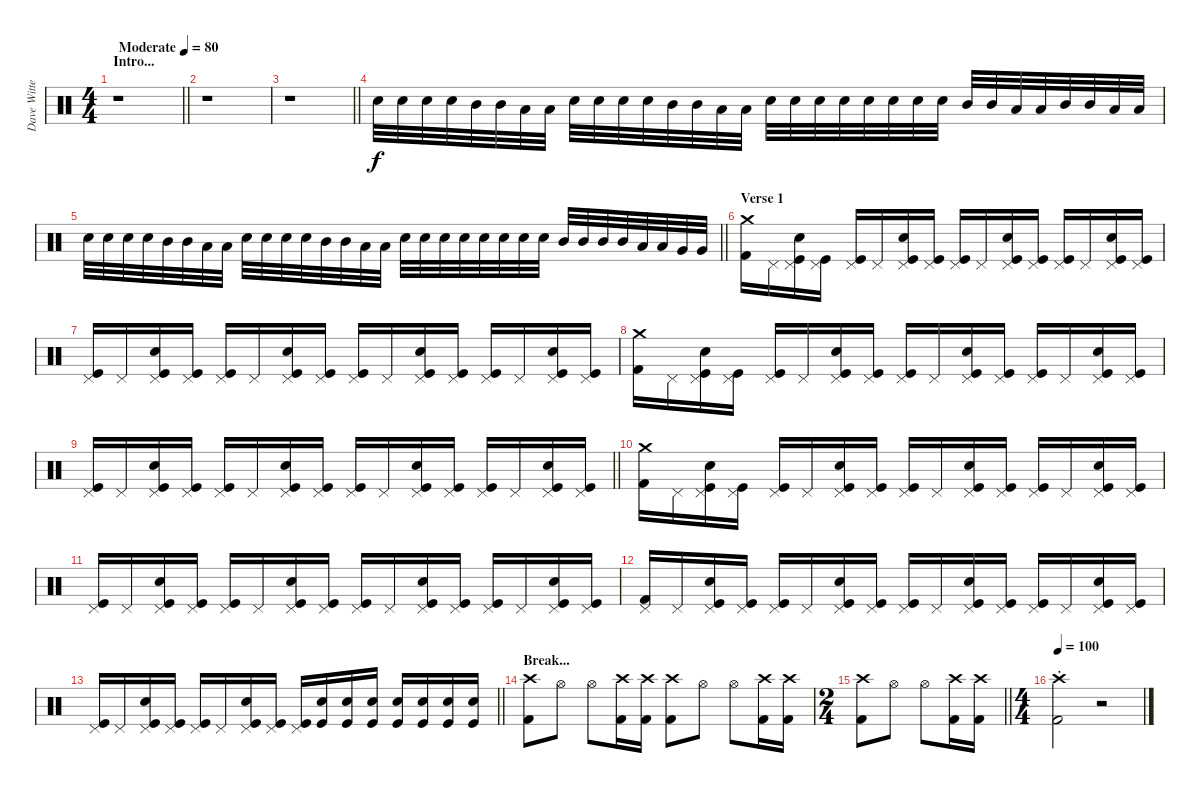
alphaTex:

\track ("Dave Witte " "Dave Witte") {instrument percussion}
\staff {score}
\articulation defaults
\ts (4 4)
\section ("" "Intro...")
\tempo (80 "Moderate")
\clef neutral
\barLineRight lightlight
\ks c
r.1{dy f} |
r.1 |
\barLineRight lightlight
r.1 |
"Electric Snare (hit)".32 "Electric Snare (hit)".32 "Electric Snare (hit)".32 "Electric Snare (hit)".32 "Mid Tom (hit)".32 "Mid Tom (hit)".32 "Low Tom (hit)".32 "Low Tom (hit)".32 "Electric Snare (hit)".32 "Electric Snare (hit)".32 "Electric Snare (hit)".32 "Electric Snare (hit)".32 "Mid Tom (hit)".32 "Mid Tom (hit)".32 "Low Tom (hit)".32 "Low Tom (hit)".32 "Electric Snare (hit)".32 "Electric Snare (hit)".32 "Electric Snare (hit)".32 "Electric Snare (hit)".32 "Electric Snare (hit)".32 "Electric Snare (hit)".32 "Electric Snare (hit)".32 "Electric Snare (hit)".32 "Mid Tom (hit)".32 "Mid Tom (hit)".32 "Low Tom (hit)".32 "Low Tom (hit)".32 "Mid Tom (hit)".32 "Mid Tom (hit)".32 "Low Tom (hit)".32 "Low Tom (hit)".32 |
\barLineRight lightlight "Electric Snare (hit)".32 "Electric Snare (hit)".32 "Electric Snare (hit)".32 "Electric Snare (hit)".32 "Mid Tom (hit)".32 "Mid Tom (hit)".32 "Low Tom (hit)".32 "Low Tom (hit)".32 "Electric Snare (hit)".32 "Electric Snare (hit)".32 "Electric Snare (hit)".32 "Electric Snare (hit)".32 "Mid Tom (hit)".32 "Mid Tom (hit)".32 "Low Tom (hit)".32 "Low Tom (hit)".32 "Electric Snare (hit)".32 "Electric Snare (hit)".32 "Electric Snare (hit)".32 "Electric Snare (hit)".32 "Electric Snare (hit)".32 "Electric Snare (hit)".32 "Electric Snare (hit)".32 "Electric Snare (hit)".32 "Mid Tom (hit)".32 "Mid Tom (hit)".32 "Mid Tom (hit)".32 "Mid Tom (hit)".32 "Low Tom (hit)".32 "Low Tom (hit)".32 "Very Low Tom (hit)".32 "Very Low Tom (hit)".32
|
\section ("" "Verse 1")
("Kick (hit) 2" "Crash medium (hit)").16 "Pedal Hi-Hat (hit)".16 ("Kick (hit)" "Electric Snare (hit)" "Pedal Hi-Hat (hit)").16 ("Kick (hit)" "Pedal Hi-Hat (hit)").16 ("Kick (hit)" "Pedal Hi-Hat (hit)").16 "Pedal Hi-Hat (hit)".16 ("Kick (hit)" "Electric Snare (hit)" "Pedal Hi-Hat (hit)").16 ("Kick (hit)" "Pedal Hi-Hat (hit)").16 ("Kick (hit)" "Pedal Hi-Hat (hit)").16 "Pedal Hi-Hat (hit)".16 ("Kick (hit)" "Electric Snare (hit)" "Pedal Hi-Hat (hit)").16 ("Kick (hit)" "Pedal Hi-Hat (hit)").16 ("Kick (hit)" "Pedal Hi-Hat (hit)").16 "Pedal Hi-Hat (hit)".16 ("Kick (hit)" "Electric Snare (hit)" "Pedal Hi-Hat (hit)").16 ("Kick (hit)" "Pedal Hi-Hat (hit)").16 |
("Kick (hit)" "Pedal Hi-Hat (hit)").16 "Pedal Hi-Hat (hit)".16 ("Kick (hit)" "Electric Snare (hit)" "Pedal Hi-Hat (hit)").16 ("Kick (hit)" "Pedal Hi-Hat (hit)").16 ("Kick (hit)" "Pedal Hi-Hat (hit)").16 "Pedal Hi-Hat (hit)".16 ("Kick (hit)" "Electric Snare (hit)" "Pedal Hi-Hat (hit)").16 ("Kick (hit)" "Pedal Hi-Hat (hit)").16 ("Kick (hit)" "Pedal Hi-Hat (hit)").16 "Pedal Hi-Hat (hit)".16 ("Kick (hit)" "Electric Snare (hit)" "Pedal Hi-Hat (hit)").16 ("Kick (hit)" "Pedal Hi-Hat (hit)").16 ("Kick (hit)" "Pedal Hi-Hat (hit)").16 "Pedal Hi-Hat (hit)".16 ("Kick (hit)" "Electric Snare (hit)" "Pedal Hi-Hat (hit)").16 ("Kick (hit)" "Pedal Hi-Hat (hit)").16 |
("Kick (hit) 2" "Crash medium (hit)").16 "Pedal Hi-Hat (hit)".16 ("Kick (hit)" "Electric Snare (hit)" "Pedal Hi-Hat (hit)").16 ("Kick (hit)" "Pedal Hi-Hat (hit)").16 ("Kick (hit)" "Pedal Hi-Hat (hit)").16 "Pedal Hi-Hat (hit)".16 ("Kick (hit)" "Electric Snare (hit)" "Pedal Hi-Hat (hit)").16 ("Kick (hit)" "Pedal Hi-Hat (hit)").16 ("Kick (hit)" "Pedal Hi-Hat (hit)").16 "Pedal Hi-Hat (hit)".16 ("Kick (hit)" "Electric Snare (hit)" "Pedal Hi-Hat (hit)").16 ("Kick (hit)" "Pedal Hi-Hat (hit)").16 ("Kick (hit)" "Pedal Hi-Hat (hit)").16 "Pedal Hi-Hat (hit)".16 ("Kick (hit)" "Electric Snare (hit)" "Pedal Hi-Hat (hit)").16 ("Kick (hit)" "Pedal Hi-Hat (hit)").16 |
\barLineRight lightlight
("Kick (hit)" "Pedal Hi-Hat (hit)").16 "Pedal Hi-Hat (hit)".16 ("Kick (hit)" "Electric Snare (hit)" "Pedal Hi-Hat (hit)").16 ("Kick (hit)" "Pedal Hi-Hat (hit)").16 ("Kick (hit)" "Pedal Hi-Hat (hit)").16 "Pedal Hi-Hat (hit)".16 ("Kick (hit)" "Electric Snare (hit)" "Pedal Hi-Hat (hit)").16 ("Kick (hit)" "Pedal Hi-Hat (hit)").16 ("Kick (hit)" "Pedal Hi-Hat (hit)").16 "Pedal Hi-Hat (hit)".16 ("Kick (hit)" "Electric Snare (hit)" "Pedal Hi-Hat (hit)").16 ("Kick (hit)" "Pedal Hi-Hat (hit)").16 ("Kick (hit)" "Pedal Hi-Hat (hit)").16 "Pedal Hi-Hat (hit)".16 ("Kick (hit)" "Electric Snare (hit)" "Pedal Hi-Hat (hit)").16 ("Kick (hit)" "Pedal Hi-Hat (hit)").16 |
("Kick (hit) 2" "Crash medium (hit)").16 "Pedal Hi-Hat (hit)".16 ("Kick (hit)" "Electric Snare (hit)" "Pedal Hi-Hat (hit)").16 ("Kick (hit)" "Pedal Hi-Hat (hit)").16 ("Kick (hit)" "Pedal Hi-Hat (hit)").16 "Pedal Hi-Hat (hit)".16 ("Kick (hit)" "Electric Snare (hit)" "Pedal Hi-Hat (hit)").16 ("Kick (hit)" "Pedal Hi-Hat (hit)").16 ("Kick (hit)" "Pedal Hi-Hat (hit)").16 "Pedal Hi-Hat (hit)".16 ("Kick (hit)" "Electric Snare (hit)" "Pedal Hi-Hat (hit)").16 ("Kick (hit)" "Pedal Hi-Hat (hit)").16 ("Kick (hit)" "Pedal Hi-Hat (hit)").16 "Pedal Hi-Hat (hit)".16 ("Kick (hit)" "Electric Snare (hit)" "Pedal Hi-Hat (hit)").16 ("Kick (hit)" "Pedal Hi-Hat (hit)").16 |
("Kick (hit)" "Pedal Hi-Hat (hit)").16 "Pedal Hi-Hat (hit)".16 ("Kick (hit)" "Electric Snare (hit)" "Pedal Hi-Hat (hit)").16 ("Kick (hit)" "Pedal Hi-Hat (hit)").16 ("Kick (hit)" "Pedal Hi-Hat (hit)").16 "Pedal Hi-Hat (hit)".16 ("Kick (hit)" "Electric Snare (hit)" "Pedal Hi-Hat (hit)").16 ("Kick (hit)" "Pedal Hi-Hat (hit)").16 ("Kick (hit)" "Pedal Hi-Hat (hit)").16 "Pedal Hi-Hat (hit)".16 ("Kick (hit)" "Electric Snare (hit)" "Pedal Hi-Hat (hit)").16 ("Kick (hit)" "Pedal Hi-Hat (hit)").16 ("Kick (hit)" "Pedal Hi-Hat (hit)").16 "Pedal Hi-Hat (hit)".16 ("Kick (hit)" "Electric Snare (hit)" "Pedal Hi-Hat (hit)").16 ("Kick (hit)" "Pedal Hi-Hat (hit)").16 |
("Kick (hit) 2" "Pedal Hi-Hat (hit)").16 "Pedal Hi-Hat (hit)".16 ("Kick (hit)" "Electric Snare (hit)" "Pedal Hi-Hat (hit)").16 ("Kick (hit)" "Pedal Hi-Hat (hit)").16 ("Kick (hit)" "Pedal Hi-Hat (hit)").16 "Pedal Hi-Hat (hit)".16 ("Kick (hit)" "Electric Snare (hit)" "Pedal Hi-Hat (hit)").16 ("Kick (hit)" "Pedal Hi-Hat (hit)").16 ("Kick (hit)" "Pedal Hi-Hat (hit)").16 "Pedal Hi-Hat (hit)".16 ("Kick (hit)" "Electric Snare (hit)" "Pedal Hi-Hat (hit)").16 ("Kick (hit)" "Pedal Hi-Hat (hit)").16 ("Kick (hit)" "Pedal Hi-Hat (hit)").16 "Pedal Hi-Hat (hit)".16 ("Kick (hit)" "Electric Snare (hit)" "Pedal Hi-Hat (hit)").16 ("Kick (hit)" "Pedal Hi-Hat (hit)").16 |
\barLineRight lightlight
("Kick (hit)" "Pedal Hi-Hat (hit)").16 "Pedal Hi-Hat (hit)".16 ("Kick (hit)" "Electric Snare (hit)" "Pedal Hi-Hat (hit)").16 ("Kick (hit)" "Pedal Hi-Hat (hit)").16 ("Kick (hit)" "Pedal Hi-Hat (hit)").16 "Pedal Hi-Hat (hit)".16 ("Kick (hit)" "Electric Snare (hit)" "Pedal Hi-Hat (hit)").16 ("Kick (hit)" "Pedal Hi-Hat (hit)").16 ("Kick (hit)" "Pedal Hi-Hat (hit)").16 ("Kick (hit)" "Electric Snare (hit)").16 ("Kick (hit)" "Electric Snare (hit)").16 ("Kick (hit)" "Electric Snare (hit)").16 ("Kick (hit)" "Electric Snare (hit)").16 ("Kick (hit)" "Electric Snare (hit)").16 ("Kick (hit)" "Electric Snare (hit)").16 ("Kick (hit)" "Electric Snare (hit)").16 |
\section ("" "Break...")
("Kick (hit) 2" "Crash high (hit)").8 "Hi-Hat (open)".8 "Hi-Hat (open)".8 ("Kick (hit) 2" "Crash high (hit)").16 ("Kick (hit) 2" "Crash high (hit)").16 ("Kick (hit) 2" "Crash high (hit)").8 "Hi-Hat (open)".8 "Hi-Hat (open)".8 ("Kick (hit) 2" "Crash high (hit)").16 ("Kick (hit) 2" "Crash high (hit)").16 |
\ts (2 4)
\barLineRight lightlight
("Kick (hit) 2" "Crash high (hit)").8 "Hi-Hat (open)".8 "Hi-Hat (open)".8 ("Kick (hit) 2" "Crash high (hit)").16 ("Kick (hit) 2" "Crash high (hit)").16 |
\ts (4 4)
\tempo 100
("Kick (hit) 2"{st} "Crash high (hit)"{st}).2 r.2
